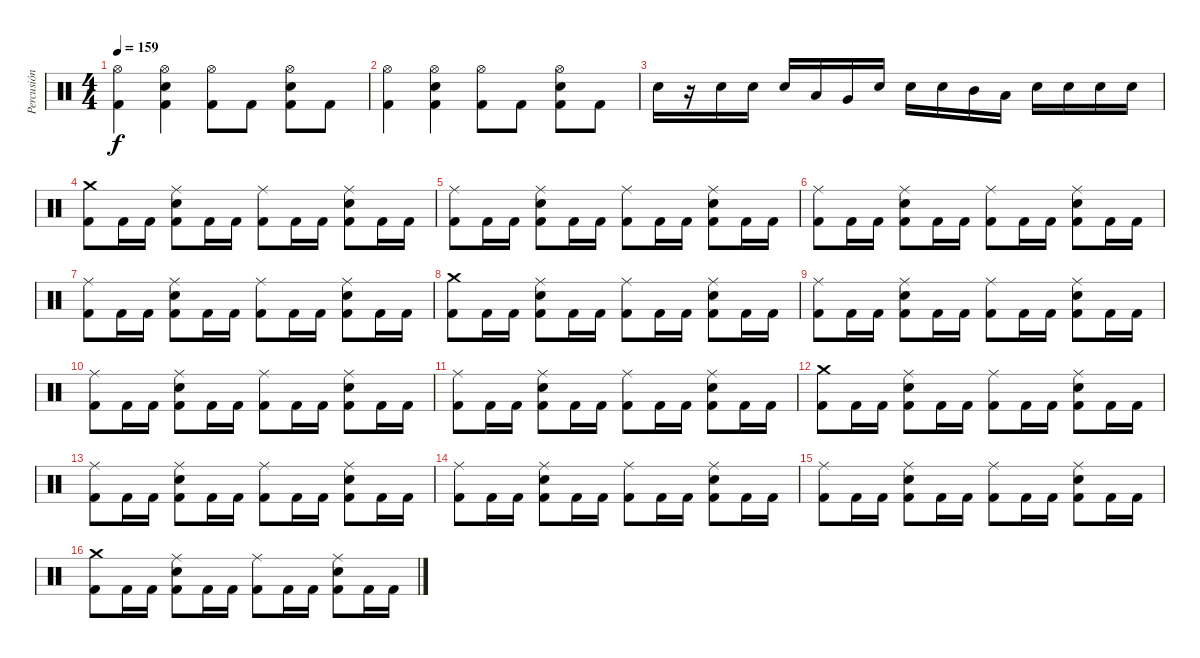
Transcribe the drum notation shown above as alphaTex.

\track ("Percusión" "Percusión") {instrument percussion}
\staff {score}
\articulation defaults
\ts (4 4)
\tempo 159
\clef neutral
\ks c
("Hi-Hat (open)" "Kick (hit) 2").4{dy f} ("Hi-Hat (open)" "Electric Snare (hit)" "Kick (hit) 2").4 ("Hi-Hat (open)" "Kick (hit) 2").8 "Kick (hit) 2".8 ("Hi-Hat (open)" "Electric Snare (hit)" "Kick (hit) 2").8 "Kick (hit) 2".8 |
("Hi-Hat (open)" "Kick (hit) 2").4 ("Hi-Hat (open)" "Electric Snare (hit)" "Kick (hit) 2").4 ("Hi-Hat (open)" "Kick (hit) 2").8 "Kick (hit) 2".8 ("Hi-Hat (open)" "Electric Snare (hit)" "Kick (hit) 2").8 "Kick (hit) 2".8 |
"Electric Snare (hit)".16 r.16 "Electric Snare (hit)".16 "Electric Snare (hit)".16 "Electric Snare (hit)".16 "Low Tom (hit)".16 "Very Low Tom (hit)".16 "Electric Snare (hit)".16 "Electric Snare (hit)".16 "Electric Snare (hit)".16 "Mid Tom (hit)".16 "Low Tom (hit)".16 "Electric Snare (hit)".16 "Electric Snare (hit)".16 "Electric Snare (hit)".16 "Electric Snare (hit)".16 |
("Crash medium (hit)" "Kick (hit) 2").8 "Kick (hit) 2".16 "Kick (hit) 2".16 ("Ride (middle)" "Electric Snare (hit)" "Kick (hit) 2").8 "Kick (hit) 2".16 "Kick (hit) 2".16 ("Ride (middle)" "Kick (hit) 2").8 "Kick (hit) 2".16 "Kick (hit) 2".16 ("Ride (middle)" "Electric Snare (hit)" "Kick (hit) 2").8 "Kick (hit) 2".16 "Kick (hit) 2".16 |
("Ride (middle)" "Kick (hit) 2").8 "Kick (hit) 2".16 "Kick (hit) 2".16 ("Ride (middle)" "Electric Snare (hit)" "Kick (hit) 2").8 "Kick (hit) 2".16 "Kick (hit) 2".16 ("Ride (middle)" "Kick (hit) 2").8 "Kick (hit) 2".16 "Kick (hit) 2".16 ("Ride (middle)" "Electric Snare (hit)" "Kick (hit) 2").8 "Kick (hit) 2".16 "Kick (hit) 2".16 |
("Ride (middle)" "Kick (hit) 2").8 "Kick (hit) 2".16 "Kick (hit) 2".16 ("Ride (middle)" "Electric Snare (hit)" "Kick (hit) 2").8 "Kick (hit) 2".16 "Kick (hit) 2".16 ("Ride (middle)" "Kick (hit) 2").8 "Kick (hit) 2".16 "Kick (hit) 2".16 ("Ride (middle)" "Electric Snare (hit)" "Kick (hit) 2").8 "Kick (hit) 2".16 "Kick (hit) 2".16 |
("Ride (middle)" "Kick (hit) 2").8 "Kick (hit) 2".16 "Kick (hit) 2".16 ("Ride (middle)" "Electric Snare (hit)" "Kick (hit) 2").8 "Kick (hit) 2".16 "Kick (hit) 2".16 ("Ride (middle)" "Kick (hit) 2").8 "Kick (hit) 2".16 "Kick (hit) 2".16 ("Ride (middle)" "Electric Snare (hit)" "Kick (hit) 2").8 "Kick (hit) 2".16 "Kick (hit) 2".16 |
("Crash medium (hit)" "Kick (hit) 2").8 "Kick (hit) 2".16 "Kick (hit) 2".16 ("Ride (middle)" "Electric Snare (hit)" "Kick (hit) 2").8 "Kick (hit) 2".16 "Kick (hit) 2".16 ("Ride (middle)" "Kick (hit) 2").8 "Kick (hit) 2".16 "Kick (hit) 2".16 ("Ride (middle)" "Electric Snare (hit)" "Kick (hit) 2").8 "Kick (hit) 2".16 "Kick (hit) 2".16 |
("Ride (middle)" "Kick (hit) 2").8 "Kick (hit) 2".16 "Kick (hit) 2".16 ("Ride (middle)" "Electric Snare (hit)" "Kick (hit) 2").8 "Kick (hit) 2".16 "Kick (hit) 2".16 ("Ride (middle)" "Kick (hit) 2").8 "Kick (hit) 2".16 "Kick (hit) 2".16 ("Ride (middle)" "Electric Snare (hit)" "Kick (hit) 2").8 "Kick (hit) 2".16 "Kick (hit) 2".16 |
("Ride (middle)" "Kick (hit) 2").8 "Kick (hit) 2".16 "Kick (hit) 2".16 ("Ride (middle)" "Electric Snare (hit)" "Kick (hit) 2").8 "Kick (hit) 2".16 "Kick (hit) 2".16 ("Ride (middle)" "Kick (hit) 2").8 "Kick (hit) 2".16 "Kick (hit) 2".16 ("Ride (middle)" "Electric Snare (hit)" "Kick (hit) 2").8 "Kick (hit) 2".16 "Kick (hit) 2".16 |
("Ride (middle)" "Kick (hit) 2").8 "Kick (hit) 2".16 "Kick (hit) 2".16 ("Ride (middle)" "Electric Snare (hit)" "Kick (hit) 2").8 "Kick (hit) 2".16 "Kick (hit) 2".16 ("Ride (middle)" "Kick (hit) 2").8 "Kick (hit) 2".16 "Kick (hit) 2".16 ("Ride (middle)" "Electric Snare (hit)" "Kick (hit) 2").8 "Kick (hit) 2".16 "Kick (hit) 2".16 |
("Crash medium (hit)" "Kick (hit) 2").8 "Kick (hit) 2".16 "Kick (hit) 2".16 ("Ride (middle)" "Electric Snare (hit)" "Kick (hit) 2").8 "Kick (hit) 2".16 "Kick (hit) 2".16 ("Ride (middle)" "Kick (hit) 2").8 "Kick (hit) 2".16 "Kick (hit) 2".16 ("Ride (middle)" "Electric Snare (hit)" "Kick (hit) 2").8 "Kick (hit) 2".16 "Kick (hit) 2".16 |
("Ride (middle)" "Kick (hit) 2").8 "Kick (hit) 2".16 "Kick (hit) 2".16 ("Ride (middle)" "Electric Snare (hit)" "Kick (hit) 2").8 "Kick (hit) 2".16 "Kick (hit) 2".16 ("Ride (middle)" "Kick (hit) 2").8 "Kick (hit) 2".16 "Kick (hit) 2".16 ("Ride (middle)" "Electric Snare (hit)" "Kick (hit) 2").8 "Kick (hit) 2".16 "Kick (hit) 2".16 |
("Ride (middle)" "Kick (hit) 2").8 "Kick (hit) 2".16 "Kick (hit) 2".16 ("Ride (middle)" "Electric Snare (hit)" "Kick (hit) 2").8 "Kick (hit) 2".16 "Kick (hit) 2".16 ("Ride (middle)" "Kick (hit) 2").8 "Kick (hit) 2".16 "Kick (hit) 2".16 ("Ride (middle)" "Electric Snare (hit)" "Kick (hit) 2").8 "Kick (hit) 2".16 "Kick (hit) 2".16 |
("Ride (middle)" "Kick (hit) 2").8 "Kick (hit) 2".16 "Kick (hit) 2".16 ("Ride (middle)" "Electric Snare (hit)" "Kick (hit) 2").8 "Kick (hit) 2".16 "Kick (hit) 2".16 ("Ride (middle)" "Kick (hit) 2").8 "Kick (hit) 2".16 "Kick (hit) 2".16 ("Ride (middle)" "Electric Snare (hit)" "Kick (hit) 2").8 "Kick (hit) 2".16 "Kick (hit) 2".16 |
("Crash medium (hit)" "Kick (hit) 2").8 "Kick (hit) 2".16 "Kick (hit) 2".16 ("Ride (middle)" "Electric Snare (hit)" "Kick (hit) 2").8 "Kick (hit) 2".16 "Kick (hit) 2".16 ("Ride (middle)" "Kick (hit) 2").8 "Kick (hit) 2".16 "Kick (hit) 2".16 ("Ride (middle)" "Electric Snare (hit)" "Kick (hit) 2").8 "Kick (hit) 2".16 "Kick (hit) 2".16
